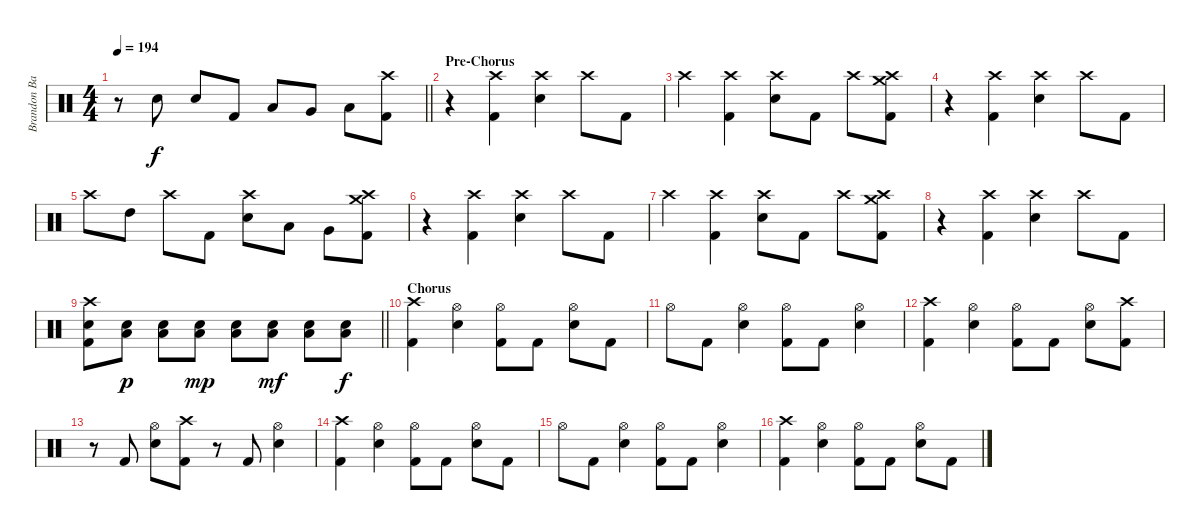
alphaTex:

\track ("Brandon Barnes - Drums" "Brandon Ba") {instrument percussion}
\staff {score}
\articulation defaults
\ts (4 4)
\tempo 194
\clef neutral
\barLineRight lightlight
\ks c
r.8{dy f} "Snare (hit) 2".8 "Snare (hit) 2".8 "Kick (hit) 2".8 "Low Tom (hit)".8 "Very Low Tom (hit)".8 "Low Floor Tom (hit)".8 ("Kick (hit) 2" "Crash high (hit)").8 |
\section ("" "Pre-Chorus")
r.4 ("Crash high (hit)" "Kick (hit) 2").4 ("Crash high (hit)" "Snare (hit) 2").4 "Crash high (hit)".8 "Kick (hit) 2".8 |
"Crash high (hit)".4 ("Kick (hit) 2" "Crash high (hit)").4 ("Snare (hit) 2" "Crash high (hit)").8 "Kick (hit) 2".8 "Crash high (hit)".8 ("Crash high (hit)" "Kick (hit) 2" "Crash medium (hit)").8 |
r.4 ("Crash high (hit)" "Kick (hit) 2").4 ("Crash high (hit)" "Snare (hit) 2").4 "Crash high (hit)".8 "Kick (hit) 2".8 |
"Crash high (hit)".8 "High Tom (hit)".8 "Crash high (hit)".8 "Kick (hit) 2".8 ("Snare (hit) 2" "Crash high (hit)").8 "Low Tom (hit)".8 "Very Low Tom (hit)".8 ("Crash high (hit)" "Kick (hit) 2" "Crash medium (hit)").8 |
r.4 ("Crash high (hit)" "Kick (hit) 2").4 ("Crash high (hit)" "Snare (hit) 2").4 "Crash high (hit)".8 "Kick (hit) 2".8 |
"Crash high (hit)".4 ("Kick (hit) 2" "Crash high (hit)").4 ("Snare (hit) 2" "Crash high (hit)").8 "Kick (hit) 2".8 "Crash high (hit)".8 ("Crash high (hit)" "Kick (hit) 2" "Crash medium (hit)").8 |
r.4 ("Crash high (hit)" "Kick (hit) 2").4 ("Crash high (hit)" "Snare (hit) 2").4 "Crash high (hit)".8 "Kick (hit) 2".8 |
\barLineRight lightlight
("Crash high (hit)" "Kick (hit) 2" "Snare (hit) 2").8 ("Snare (hit) 2" "Low Floor Tom (hit)").8{dy p} ("Snare (hit) 2" "Low Floor Tom (hit)").8 ("Snare (hit) 2" "Low Floor Tom (hit)").8{dy mp} ("Snare (hit) 2" "Low Floor Tom (hit)").8 ("Snare (hit) 2" "Low Floor Tom (hit)").8{dy mf} ("Snare (hit) 2" "Low Floor Tom (hit)").8 ("Snare (hit) 2" "Low Floor Tom (hit)").8{dy f} |
\section ("" "Chorus")
("Crash high (hit)" "Kick (hit) 2").4 ("Snare (hit) 2" "Hi-Hat (open)").4 ("Kick (hit) 2" "Hi-Hat (open)").8 "Kick (hit) 2".8 ("Snare (hit) 2" "Hi-Hat (open)").8 "Kick (hit) 2".8 |
"Hi-Hat (open)".8 "Kick (hit) 2".8 ("Snare (hit) 2" "Hi-Hat (open)").4 ("Kick (hit) 2" "Hi-Hat (open)").8 "Kick (hit) 2".8 ("Snare (hit) 2" "Hi-Hat (open)").4 |
("Crash high (hit)" "Kick (hit) 2").4 ("Snare (hit) 2" "Hi-Hat (open)").4 ("Kick (hit) 2" "Hi-Hat (open)").8 "Kick (hit) 2".8 ("Snare (hit) 2" "Hi-Hat (open)").8 ("Kick (hit) 2" "Crash high (hit)").8 |
r.8 "Kick (hit) 2".8 ("Snare (hit) 2" "Hi-Hat (open)").8 ("Kick (hit) 2" "Crash high (hit)").8 r.8 "Kick (hit) 2".8 ("Snare (hit) 2" "Hi-Hat (open)").4 |
("Crash high (hit)" "Kick (hit) 2").4 ("Snare (hit) 2" "Hi-Hat (open)").4 ("Kick (hit) 2" "Hi-Hat (open)").8 "Kick (hit) 2".8 ("Snare (hit) 2" "Hi-Hat (open)").8 "Kick (hit) 2".8 |
"Hi-Hat (open)".8 "Kick (hit) 2".8 ("Snare (hit) 2" "Hi-Hat (open)").4 ("Kick (hit) 2" "Hi-Hat (open)").8 "Kick (hit) 2".8 ("Snare (hit) 2" "Hi-Hat (open)").4 |
("Crash high (hit)" "Kick (hit) 2").4 ("Snare (hit) 2" "Hi-Hat (open)").4 ("Kick (hit) 2" "Hi-Hat (open)").8 "Kick (hit) 2".8 ("Snare (hit) 2" "Hi-Hat (open)").8 "Kick (hit) 2".8
